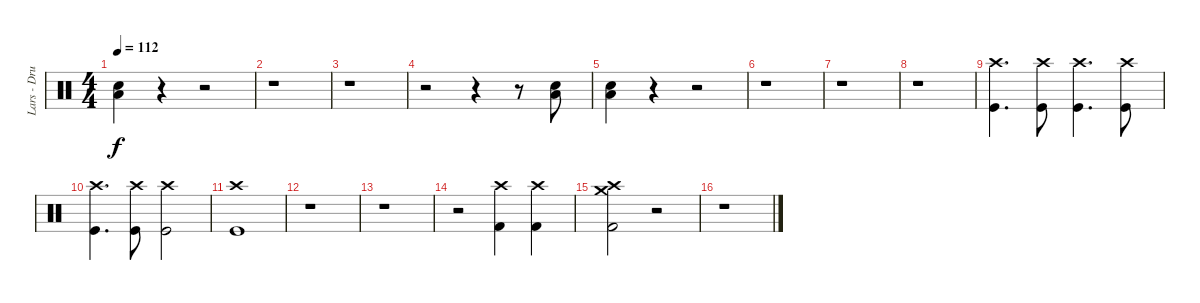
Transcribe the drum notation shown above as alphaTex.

\track ("Lars - Drums" "Lars - Dru") {instrument percussion}
\staff {score}
\articulation defaults
\ts (4 4)
\tempo 112
\clef neutral
\ks c
("Low Floor Tom (hit)" "Snare (hit) 2").4{dy f} r.4 r.2 |
r.1 |
r.1 |
r.2 r.4 r.8 ("Low Floor Tom (hit)" "Snare (hit) 2").8 |
("Low Floor Tom (hit)" "Snare (hit) 2").4 r.4 r.2 |
r.1 |
r.1 |
r.1 |
("Crash high (hit)" "Kick (hit)").4{d} ("Crash high (hit)" "Kick (hit)").8 ("Crash high (hit)" "Kick (hit)").4{d} ("Crash high (hit)" "Kick (hit)").8 |
("Crash high (hit)" "Kick (hit)").4{d} ("Crash high (hit)" "Kick (hit)").8 ("Crash high (hit)" "Kick (hit)").2 |
("Crash high (hit)" "Kick (hit)").1 |
r.1 |
r.1 |
r.2 ("Crash high (hit)" "Kick (hit) 2").4 ("Crash high (hit)" "Kick (hit) 2").4 |
("Crash high (hit)" "Crash medium (hit)" "Kick (hit) 2").2 r.2 |
r.1{volume 8}
